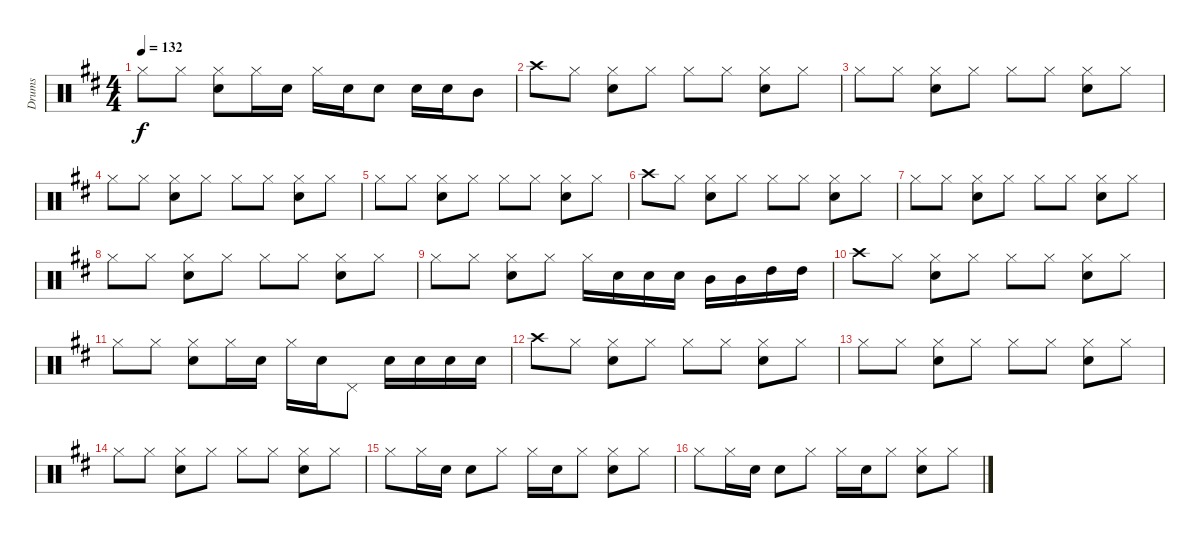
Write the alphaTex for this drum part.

\track ("Drums" "Drums") {instrument percussion}
\staff {score}
\articulation defaults
\ts (4 4)
\tempo 132
\clef neutral
\ks d "Hi-Hat (closed)".8{dy f} "Hi-Hat (closed)".8
("Hi-Hat (closed)" "Snare (hit) 2").8 "Hi-Hat (closed)".16 "Snare (hit) 2".16 "Hi-Hat (closed)".16 "Snare (hit) 2".16 "Snare (hit) 2".8 "Snare (hit) 2".16 "Snare (hit) 2".16 "Mid Tom (hit)".8 |
"Crash high (hit)".8 "Hi-Hat (closed)".8 ("Hi-Hat (closed)" "Snare (hit) 2").8 "Hi-Hat (closed)".8 "Hi-Hat (closed)".8 "Hi-Hat (closed)".8 ("Hi-Hat (closed)" "Snare (hit) 2").8 "Hi-Hat (closed)".8 |
"Hi-Hat (closed)".8 "Hi-Hat (closed)".8 ("Hi-Hat (closed)" "Snare (hit) 2").8 "Hi-Hat (closed)".8 "Hi-Hat (closed)".8 "Hi-Hat (closed)".8 ("Hi-Hat (closed)" "Snare (hit) 2").8 "Hi-Hat (closed)".8 |
"Hi-Hat (closed)".8 "Hi-Hat (closed)".8 ("Hi-Hat (closed)" "Snare (hit) 2").8 "Hi-Hat (closed)".8 "Hi-Hat (closed)".8 "Hi-Hat (closed)".8 ("Hi-Hat (closed)" "Snare (hit) 2").8 "Hi-Hat (closed)".8 |
"Hi-Hat (closed)".8 "Hi-Hat (closed)".8 ("Hi-Hat (closed)" "Snare (hit) 2").8 "Hi-Hat (closed)".8 "Hi-Hat (closed)".8 "Hi-Hat (closed)".8 ("Hi-Hat (closed)" "Snare (hit) 2").8 "Hi-Hat (closed)".8 |
"Crash high (hit)".8 "Hi-Hat (closed)".8 ("Hi-Hat (closed)" "Snare (hit) 2").8 "Hi-Hat (closed)".8 "Hi-Hat (closed)".8 "Hi-Hat (closed)".8 ("Hi-Hat (closed)" "Snare (hit) 2").8 "Hi-Hat (closed)".8 |
"Hi-Hat (closed)".8 "Hi-Hat (closed)".8 ("Hi-Hat (closed)" "Snare (hit) 2").8 "Hi-Hat (closed)".8 "Hi-Hat (closed)".8 "Hi-Hat (closed)".8 ("Hi-Hat (closed)" "Snare (hit) 2").8 "Hi-Hat (closed)".8 |
"Hi-Hat (closed)".8 "Hi-Hat (closed)".8 ("Hi-Hat (closed)" "Snare (hit) 2").8 "Hi-Hat (closed)".8 "Hi-Hat (closed)".8 "Hi-Hat (closed)".8 ("Hi-Hat (closed)" "Snare (hit) 2").8 "Hi-Hat (closed)".8 |
"Hi-Hat (closed)".8 "Hi-Hat (closed)".8 ("Hi-Hat (closed)" "Snare (hit) 2").8 "Hi-Hat (closed)".8 "Hi-Hat (closed)".16 "Snare (hit) 2".16 "Snare (hit) 2".16 "Snare (hit) 2".16 "Mid Tom (hit)".16 "Mid Tom (hit)".16 "High Tom (hit)".16 "High Tom (hit)".16 |
"Crash high (hit)".8 "Hi-Hat (closed)".8 ("Hi-Hat (closed)" "Snare (hit) 2").8 "Hi-Hat (closed)".8 "Hi-Hat (closed)".8 "Hi-Hat (closed)".8 ("Hi-Hat (closed)" "Snare (hit) 2").8 "Hi-Hat (closed)".8 |
"Hi-Hat (closed)".8 "Hi-Hat (closed)".8 ("Hi-Hat (closed)" "Snare (hit) 2").8 "Hi-Hat (closed)".16 "Snare (hit) 2".16 "Hi-Hat (closed)".16 "Snare (hit) 2".16 "Pedal Hi-Hat (hit)".8 "Snare (hit) 2".16 "Snare (hit) 2".16 "Snare (hit) 2".16 "Snare (hit) 2".16 |
"Crash high (hit)".8 "Hi-Hat (closed)".8 ("Hi-Hat (closed)" "Snare (hit) 2").8 "Hi-Hat (closed)".8 "Hi-Hat (closed)".8 "Hi-Hat (closed)".8 ("Hi-Hat (closed)" "Snare (hit) 2").8 "Hi-Hat (closed)".8 |
"Hi-Hat (closed)".8 "Hi-Hat (closed)".8 ("Hi-Hat (closed)" "Snare (hit) 2").8 "Hi-Hat (closed)".8 "Hi-Hat (closed)".8 "Hi-Hat (closed)".8 ("Hi-Hat (closed)" "Snare (hit) 2").8 "Hi-Hat (closed)".8 |
"Hi-Hat (closed)".8 "Hi-Hat (closed)".8 ("Hi-Hat (closed)" "Snare (hit) 2").8 "Hi-Hat (closed)".8 "Hi-Hat (closed)".8 "Hi-Hat (closed)".8 ("Hi-Hat (closed)" "Snare (hit) 2").8 "Hi-Hat (closed)".8 |
"Hi-Hat (closed)".8 "Hi-Hat (closed)".16 "Snare (hit) 2".16 "Snare (hit) 2".8 "Hi-Hat (closed)".8 "Hi-Hat (closed)".16 "Snare (hit) 2".16 "Hi-Hat (closed)".8 ("Hi-Hat (closed)" "Snare (hit) 2").8 "Hi-Hat (closed)".8 |
"Hi-Hat (closed)".8 "Hi-Hat (closed)".16 "Snare (hit) 2".16 "Snare (hit) 2".8 "Hi-Hat (closed)".8 "Hi-Hat (closed)".16 "Snare (hit) 2".16 "Hi-Hat (closed)".8 ("Hi-Hat (closed)" "Snare (hit) 2").8 "Hi-Hat (closed)".8
